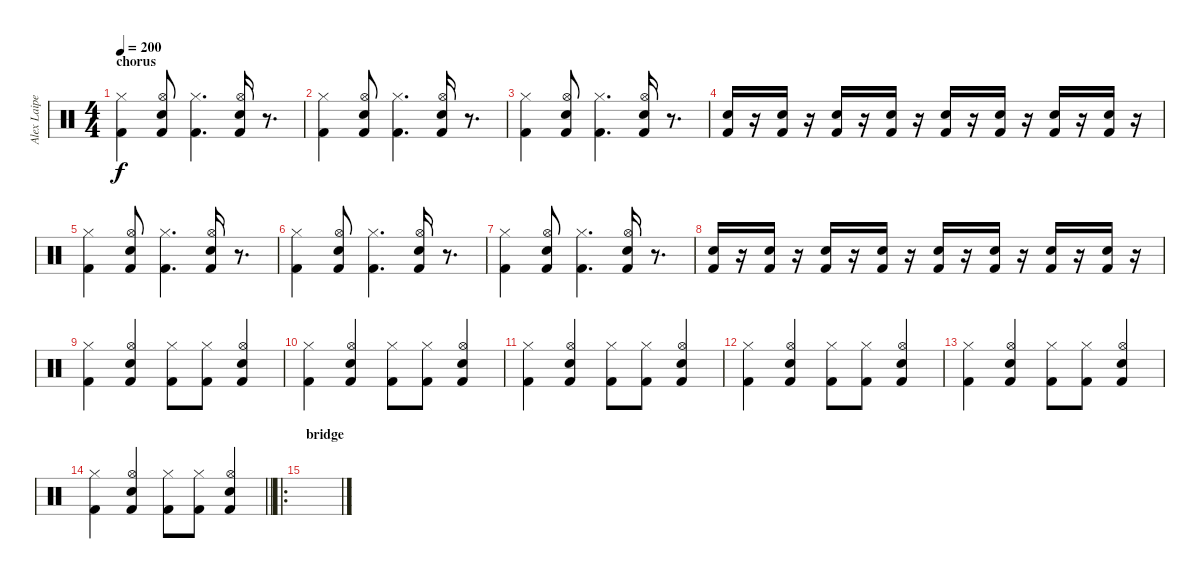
\track ("Alex Laipeneiks - Drums" "Alex Laipe") {instrument percussion}
\staff {score}
\articulation defaults
\ts (4 4)
\section ("" "chorus")
\tempo 200
\clef neutral
\ks c
("Hi-Hat (closed)" "Kick (hit) 2").4{dy f} ("Hi-Hat (open)" "Snare (hit) 2" "Kick (hit) 2").8 ("Hi-Hat (closed)" "Kick (hit) 2").4{d} ("Hi-Hat (open)" "Snare (hit) 2" "Kick (hit) 2").16 r.8{d} |
("Hi-Hat (closed)" "Kick (hit) 2").4 ("Hi-Hat (open)" "Snare (hit) 2" "Kick (hit) 2").8 ("Hi-Hat (closed)" "Kick (hit) 2").4{d} ("Hi-Hat (open)" "Snare (hit) 2" "Kick (hit) 2").16 r.8{d} |
("Hi-Hat (closed)" "Kick (hit) 2").4 ("Hi-Hat (open)" "Snare (hit) 2" "Kick (hit) 2").8 ("Hi-Hat (closed)" "Kick (hit) 2").4{d} ("Hi-Hat (open)" "Snare (hit) 2" "Kick (hit) 2").16 r.8{d} |
("Snare (hit) 2" "Kick (hit) 2").16 r.16 ("Snare (hit) 2" "Kick (hit) 2").16 r.16 ("Snare (hit) 2" "Kick (hit) 2").16 r.16 ("Snare (hit) 2" "Kick (hit) 2").16 r.16 ("Snare (hit) 2" "Kick (hit) 2").16 r.16 ("Snare (hit) 2" "Kick (hit) 2").16 r.16 ("Snare (hit) 2" "Kick (hit) 2").16 r.16 ("Snare (hit) 2" "Kick (hit) 2").16 r.16 |
("Hi-Hat (closed)" "Kick (hit) 2").4 ("Hi-Hat (open)" "Snare (hit) 2" "Kick (hit) 2").8 ("Hi-Hat (closed)" "Kick (hit) 2").4{d} ("Hi-Hat (open)" "Snare (hit) 2" "Kick (hit) 2").16 r.8{d} |
("Hi-Hat (closed)" "Kick (hit) 2").4 ("Hi-Hat (open)" "Snare (hit) 2" "Kick (hit) 2").8 ("Hi-Hat (closed)" "Kick (hit) 2").4{d} ("Hi-Hat (open)" "Snare (hit) 2" "Kick (hit) 2").16 r.8{d} |
("Hi-Hat (closed)" "Kick (hit) 2").4 ("Hi-Hat (open)" "Snare (hit) 2" "Kick (hit) 2").8 ("Hi-Hat (closed)" "Kick (hit) 2").4{d} ("Hi-Hat (open)" "Snare (hit) 2" "Kick (hit) 2").16 r.8{d} |
("Snare (hit) 2" "Kick (hit) 2").16 r.16 ("Snare (hit) 2" "Kick (hit) 2").16 r.16 ("Snare (hit) 2" "Kick (hit) 2").16 r.16 ("Snare (hit) 2" "Kick (hit) 2").16 r.16 ("Snare (hit) 2" "Kick (hit) 2").16 r.16 ("Snare (hit) 2" "Kick (hit) 2").16 r.16 ("Snare (hit) 2" "Kick (hit) 2").16 r.16 ("Snare (hit) 2" "Kick (hit) 2").16 r.16 |
("Hi-Hat (closed)" "Kick (hit) 2").4 ("Hi-Hat (open)" "Snare (hit) 2" "Kick (hit) 2").4 ("Hi-Hat (closed)" "Kick (hit) 2").8 ("Hi-Hat (closed)" "Kick (hit) 2").8 ("Hi-Hat (open)" "Snare (hit) 2" "Kick (hit) 2").4 |
("Hi-Hat (closed)" "Kick (hit) 2").4 ("Hi-Hat (open)" "Snare (hit) 2" "Kick (hit) 2").4 ("Hi-Hat (closed)" "Kick (hit) 2").8 ("Hi-Hat (closed)" "Kick (hit) 2").8 ("Hi-Hat (open)" "Snare (hit) 2" "Kick (hit) 2").4 |
("Hi-Hat (closed)" "Kick (hit) 2").4 ("Hi-Hat (open)" "Snare (hit) 2" "Kick (hit) 2").4 ("Hi-Hat (closed)" "Kick (hit) 2").8 ("Hi-Hat (closed)" "Kick (hit) 2").8 ("Hi-Hat (open)" "Snare (hit) 2" "Kick (hit) 2").4 |
("Hi-Hat (closed)" "Kick (hit) 2").4 ("Hi-Hat (open)" "Snare (hit) 2" "Kick (hit) 2").4 ("Hi-Hat (closed)" "Kick (hit) 2").8 ("Hi-Hat (closed)" "Kick (hit) 2").8 ("Hi-Hat (open)" "Snare (hit) 2" "Kick (hit) 2").4 |
("Hi-Hat (closed)" "Kick (hit) 2").4 ("Hi-Hat (open)" "Snare (hit) 2" "Kick (hit) 2").4 ("Hi-Hat (closed)" "Kick (hit) 2").8 ("Hi-Hat (closed)" "Kick (hit) 2").8 ("Hi-Hat (open)" "Snare (hit) 2" "Kick (hit) 2").4 |
\barLineRight lightlight
("Hi-Hat (closed)" "Kick (hit) 2").4 ("Hi-Hat (open)" "Snare (hit) 2" "Kick (hit) 2").4 ("Hi-Hat (closed)" "Kick (hit) 2").8 ("Hi-Hat (closed)" "Kick (hit) 2").8 ("Hi-Hat (open)" "Snare (hit) 2" "Kick (hit) 2").4 |
\ro
\section ("" "bridge")
